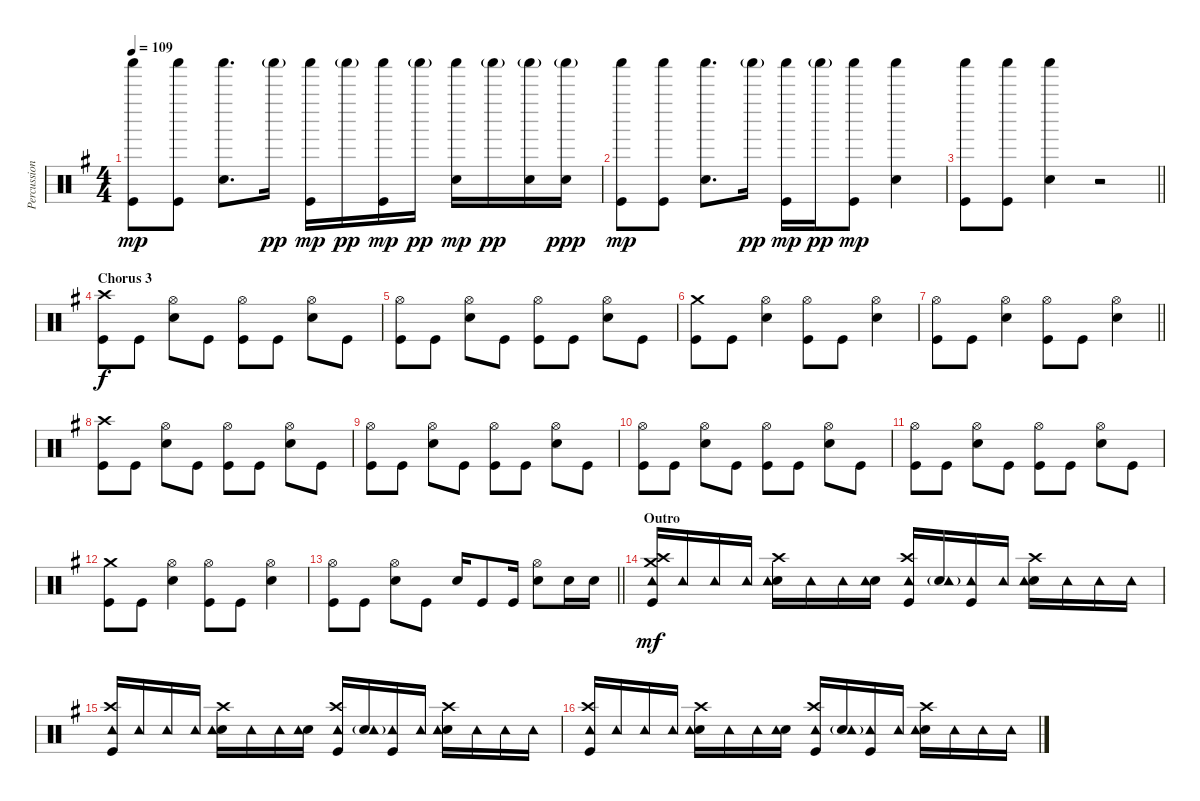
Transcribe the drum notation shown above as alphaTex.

\track ("Percussion" "Percussion") {instrument percussion}
\staff {score}
\articulation defaults
\ts (4 4)
\tempo 109
\clef neutral
\ks g
("Shaker (hit)" "Kick (hit)").8{dy mp} ("Shaker (hit)" "Kick (hit)").8 ("Snare (hit) 2" "Shaker (hit)").8{d} "Shaker (hit)"{g}.16{dy pp} ("Shaker (hit)" "Kick (hit)").16{dy mp} "Shaker (hit)"{g}.16{dy pp} ("Shaker (hit)" "Kick (hit)").16{dy mp} "Shaker (hit)"{g}.16{dy pp} ("Snare (hit) 2" "Shaker (hit)").16{dy mp} "Shaker (hit)"{g}.16{dy pp} ("Snare (hit) 2" "Shaker (hit)"{g}).16 ("Snare (hit) 2" "Shaker (hit)"{g}).16{dy ppp} |
("Shaker (hit)" "Kick (hit)").8{dy mp} ("Shaker (hit)" "Kick (hit)").8 ("Snare (hit) 2" "Shaker (hit)").8{d} "Shaker (hit)"{g}.16{dy pp} ("Shaker (hit)" "Kick (hit)").16{dy mp} "Shaker (hit)"{g}.16{dy pp} ("Shaker (hit)" "Kick (hit)").8{dy mp} ("Snare (hit) 2" "Shaker (hit)").4 |
\barLineRight lightlight
("Shaker (hit)" "Kick (hit)").8 ("Shaker (hit)" "Kick (hit)").8 ("Snare (hit) 2" "Shaker (hit)").4 r.2 |
\section ("" "Chorus 3")
("Crash high (hit)" "Kick (hit)").8{dy f} "Kick (hit)".8 ("Hi-Hat (open)" "Electric Snare (hit)").8 "Kick (hit)".8 ("Hi-Hat (open)" "Kick (hit)").8 "Kick (hit)".8 ("Hi-Hat (open)" "Electric Snare (hit)").8 "Kick (hit)".8 |
("Hi-Hat (open)" "Kick (hit)").8 "Kick (hit)".8 ("Hi-Hat (open)" "Electric Snare (hit)").8 "Kick (hit)".8 ("Hi-Hat (open)" "Kick (hit)").8 "Kick (hit)".8 ("Hi-Hat (open)" "Electric Snare (hit)").8 "Kick (hit)".8 |
("Crash medium (hit)" "Kick (hit)").8 "Kick (hit)".8 ("Hi-Hat (open)" "Electric Snare (hit)").4 ("Hi-Hat (open)" "Kick (hit)").8 "Kick (hit)".8 ("Hi-Hat (open)" "Electric Snare (hit)").4 |
\barLineRight lightlight
("Hi-Hat (open)" "Kick (hit)").8 "Kick (hit)".8 ("Hi-Hat (open)" "Electric Snare (hit)").4 ("Hi-Hat (open)" "Kick (hit)").8 "Kick (hit)".8 ("Hi-Hat (open)" "Electric Snare (hit)").4 |
("Crash high (hit)" "Kick (hit)").8 "Kick (hit)".8 ("Hi-Hat (open)" "Electric Snare (hit)").8 "Kick (hit)".8 ("Hi-Hat (open)" "Kick (hit)").8 "Kick (hit)".8 ("Hi-Hat (open)" "Electric Snare (hit)").8 "Kick (hit)".8 |
("Hi-Hat (open)" "Kick (hit)").8 "Kick (hit)".8 ("Hi-Hat (open)" "Electric Snare (hit)").8 "Kick (hit)".8 ("Hi-Hat (open)" "Kick (hit)").8 "Kick (hit)".8 ("Hi-Hat (open)" "Electric Snare (hit)").8 "Kick (hit)".8 |
("Hi-Hat (open)" "Kick (hit)").8 "Kick (hit)".8 ("Hi-Hat (open)" "Electric Snare (hit)").8 "Kick (hit)".8 ("Hi-Hat (open)" "Kick (hit)").8 "Kick (hit)".8 ("Hi-Hat (open)" "Electric Snare (hit)").8 "Kick (hit)".8 |
("Hi-Hat (open)" "Kick (hit)").8 "Kick (hit)".8 ("Hi-Hat (open)" "Electric Snare (hit)").8 "Kick (hit)".8 ("Hi-Hat (open)" "Kick (hit)").8 "Kick (hit)".8 ("Hi-Hat (open)" "Electric Snare (hit)").8 "Kick (hit)".8 |
("Crash medium (hit)" "Kick (hit)").8 "Kick (hit)".8 ("Hi-Hat (open)" "Electric Snare (hit)").4 ("Hi-Hat (open)" "Kick (hit)").8 "Kick (hit)".8 ("Hi-Hat (open)" "Electric Snare (hit)").4 |
\barLineRight lightlight
("Hi-Hat (open)" "Kick (hit)").8 "Kick (hit)".8 ("Hi-Hat (open)" "Electric Snare (hit)").8 "Kick (hit)".8 "Electric Snare (hit)".16 "Kick (hit)".8 "Kick (hit)".16 ("Hi-Hat (open)" "Electric Snare (hit)").8 "Electric Snare (hit)".16 "Electric Snare (hit)".16 |
\section ("" "Outro")
("Crash medium (hit)" "Crash high (hit)" "Tambourine (hit)" "Kick (hit)").16{dy mf} "Tambourine (hit)".16 "Tambourine (hit)".16 "Tambourine (hit)".16 ("Crash high (hit)" "Electric Snare (hit)" "Tambourine (hit)").16 "Tambourine (hit)".16 "Tambourine (hit)".16 ("Electric Snare (hit)" "Tambourine (hit)").16 ("Crash high (hit)" "Tambourine (hit)" "Kick (hit)").16 ("Electric Snare (hit)"{g} "Tambourine (hit)").16 ("Tambourine (hit)" "Kick (hit)").16 "Tambourine (hit)".16 ("Crash high (hit)" "Electric Snare (hit)" "Tambourine (hit)").16 "Tambourine (hit)".16 "Tambourine (hit)".16 "Tambourine (hit)".16 |
("Crash high (hit)" "Tambourine (hit)" "Kick (hit)").16 "Tambourine (hit)".16 "Tambourine (hit)".16 "Tambourine (hit)".16 ("Crash high (hit)" "Electric Snare (hit)" "Tambourine (hit)").16 "Tambourine (hit)".16 "Tambourine (hit)".16 ("Electric Snare (hit)" "Tambourine (hit)").16 ("Crash high (hit)" "Tambourine (hit)" "Kick (hit)").16 ("Electric Snare (hit)"{g} "Tambourine (hit)").16 ("Tambourine (hit)" "Kick (hit)").16 "Tambourine (hit)".16 ("Crash high (hit)" "Electric Snare (hit)" "Tambourine (hit)").16 "Tambourine (hit)".16 "Tambourine (hit)".16 "Tambourine (hit)".16 |
("Crash high (hit)" "Tambourine (hit)" "Kick (hit)").16 "Tambourine (hit)".16 "Tambourine (hit)".16 "Tambourine (hit)".16 ("Crash high (hit)" "Electric Snare (hit)" "Tambourine (hit)").16 "Tambourine (hit)".16 "Tambourine (hit)".16 ("Electric Snare (hit)" "Tambourine (hit)").16 ("Crash high (hit)" "Tambourine (hit)" "Kick (hit)").16 ("Electric Snare (hit)"{g} "Tambourine (hit)").16 ("Tambourine (hit)" "Kick (hit)").16 "Tambourine (hit)".16 ("Crash high (hit)" "Electric Snare (hit)" "Tambourine (hit)").16 "Tambourine (hit)".16 "Tambourine (hit)".16 "Tambourine (hit)".16
